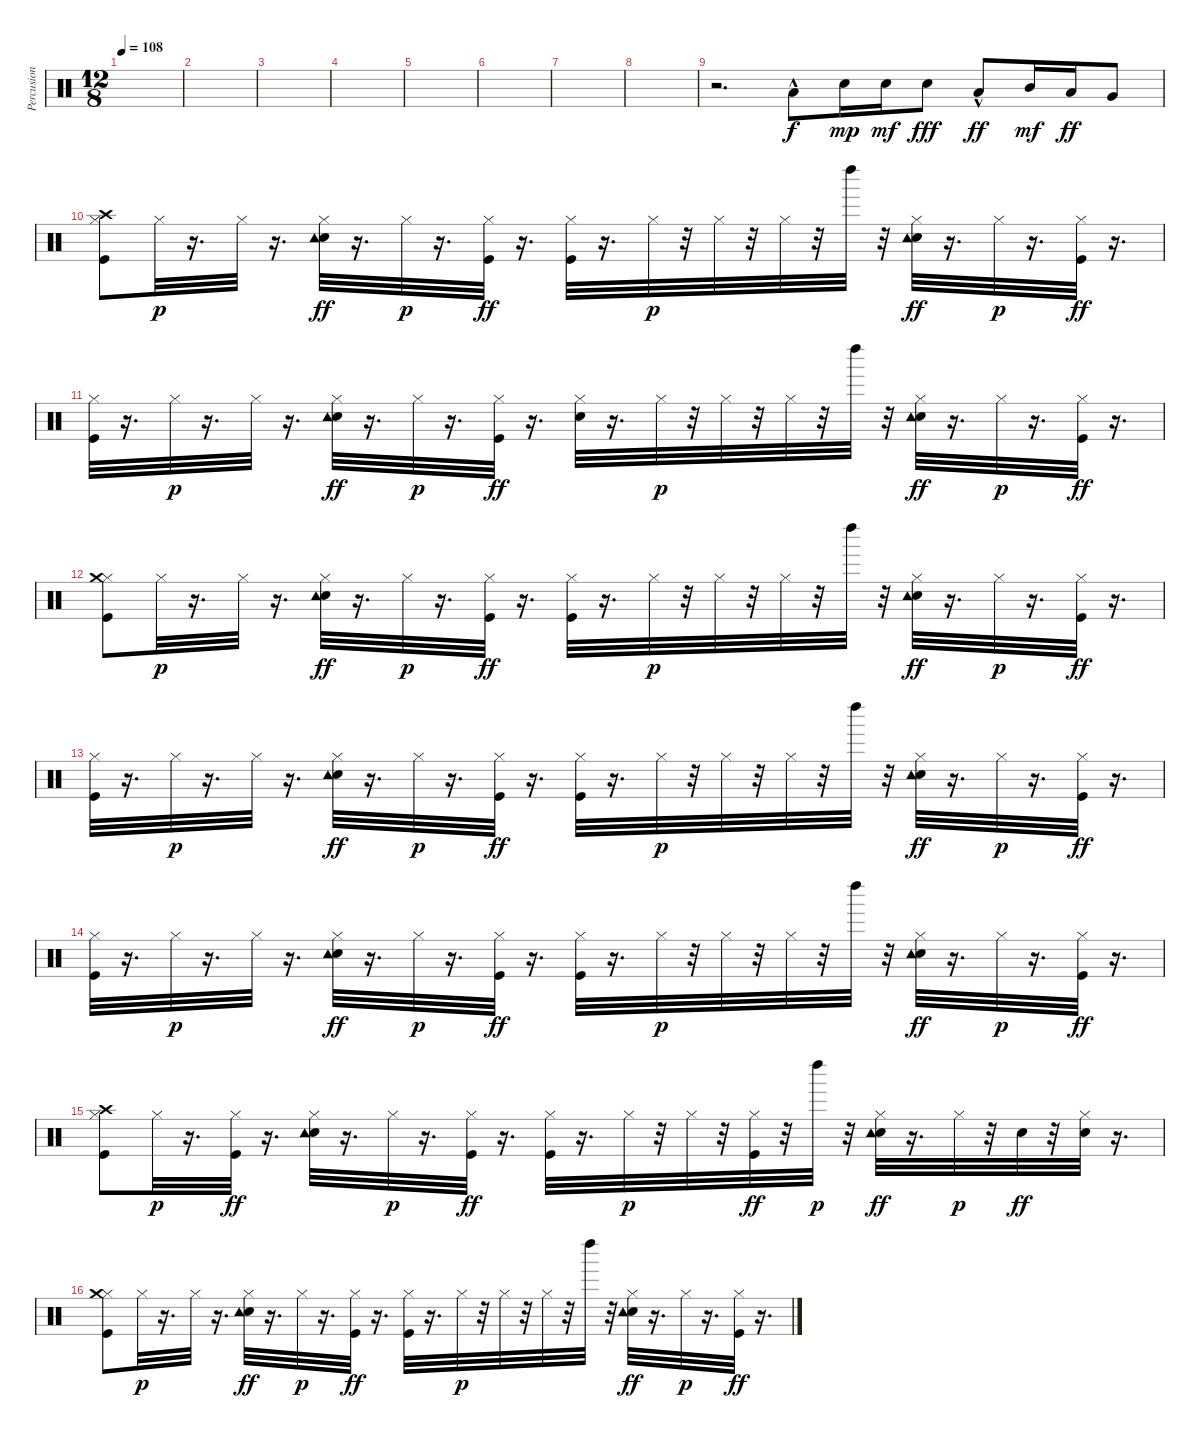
\track ("Percusion (Matt)" "Percusion ") {instrument percussion}
\staff {score}
\articulation defaults
\ts (12 8)
\tempo 108
\clef neutral
\ks c
|
|
|
|
|
|
|
|
r.2{d} "Low Tom (hit)"{hac}.8 "Snare (hit) 2".16{dy mp} "Snare (hit) 2".16{dy mf} "Snare (hit) 2".8{dy fff} "Low Tom (hit)"{hac}.8{dy ff} "Mid Tom (hit)".16{dy mf} "Low Tom (hit)".16{dy ff} "Very Low Tom (hit)".8 |
("Hi-Hat (closed)" "Kick (hit)" "Crash high (hit)").8 "Hi-Hat (closed)".32{dy p} r.16{d} "Hi-Hat (closed)".32 r.16{d} ("Hi-Hat (closed)" "Electric Snare (hit)" "Tambourine (hit)").32{dy ff} r.16{d} "Hi-Hat (closed)".32{dy p} r.16{d} ("Hi-Hat (closed)" "Kick (hit)").32{dy ff} r.16{d} ("Hi-Hat (closed)" "Kick (hit)").32 r.16{d} "Hi-Hat (closed)".32{dy p} r.32 "Hi-Hat (closed)".32 r.32 "Hi-Hat (closed)".32 r.32 "Left Maraca (hit)".32 r.32 ("Hi-Hat (closed)" "Electric Snare (hit)" "Tambourine (hit)").32{dy ff} r.16{d} "Hi-Hat (closed)".32{dy p} r.16{d} ("Hi-Hat (closed)" "Kick (hit)").32{dy ff} r.16{d} |
("Hi-Hat (closed)" "Kick (hit)").32 r.16{d} "Hi-Hat (closed)".32{dy p} r.16{d} "Hi-Hat (closed)".32 r.16{d} ("Hi-Hat (closed)" "Electric Snare (hit)" "Tambourine (hit)").32{dy ff} r.16{d} "Hi-Hat (closed)".32{dy p} r.16{d} ("Hi-Hat (closed)" "Kick (hit)").32{dy ff} r.16{d} ("Hi-Hat (closed)" "Electric Snare (hit)").32 r.16{d} "Hi-Hat (closed)".32{dy p} r.32 "Hi-Hat (closed)".32 r.32 "Hi-Hat (closed)".32 r.32 "Left Maraca (hit)".32 r.32 ("Hi-Hat (closed)" "Electric Snare (hit)" "Tambourine (hit)").32{dy ff} r.16{d} "Hi-Hat (closed)".32{dy p} r.16{d} ("Hi-Hat (closed)" "Kick (hit)").32{dy ff} r.16{d} |
("Hi-Hat (closed)" "Kick (hit)" "Crash medium (hit)").8 "Hi-Hat (closed)".32{dy p} r.16{d} "Hi-Hat (closed)".32 r.16{d} ("Hi-Hat (closed)" "Electric Snare (hit)" "Tambourine (hit)").32{dy ff} r.16{d} "Hi-Hat (closed)".32{dy p} r.16{d} ("Hi-Hat (closed)" "Kick (hit)").32{dy ff} r.16{d} ("Hi-Hat (closed)" "Kick (hit)").32 r.16{d} "Hi-Hat (closed)".32{dy p} r.32 "Hi-Hat (closed)".32 r.32 "Hi-Hat (closed)".32 r.32 "Left Maraca (hit)".32 r.32 ("Hi-Hat (closed)" "Electric Snare (hit)" "Tambourine (hit)").32{dy ff} r.16{d} "Hi-Hat (closed)".32{dy p} r.16{d} ("Hi-Hat (closed)" "Kick (hit)").32{dy ff} r.16{d} |
("Hi-Hat (closed)" "Kick (hit)").32 r.16{d} "Hi-Hat (closed)".32{dy p} r.16{d} "Hi-Hat (closed)".32 r.16{d} ("Hi-Hat (closed)" "Electric Snare (hit)" "Tambourine (hit)").32{dy ff} r.16{d} "Hi-Hat (closed)".32{dy p} r.16{d} ("Hi-Hat (closed)" "Kick (hit)").32{dy ff} r.16{d} ("Hi-Hat (closed)" "Kick (hit)").32 r.16{d} "Hi-Hat (closed)".32{dy p} r.32 "Hi-Hat (closed)".32 r.32 "Hi-Hat (closed)".32 r.32 "Left Maraca (hit)".32 r.32 ("Hi-Hat (closed)" "Electric Snare (hit)" "Tambourine (hit)").32{dy ff} r.16{d} "Hi-Hat (closed)".32{dy p} r.16{d} ("Hi-Hat (closed)" "Kick (hit)").32{dy ff} r.16{d} |
("Hi-Hat (closed)" "Kick (hit)").32 r.16{d} "Hi-Hat (closed)".32{dy p} r.16{d} "Hi-Hat (closed)".32 r.16{d} ("Hi-Hat (closed)" "Electric Snare (hit)" "Tambourine (hit)").32{dy ff} r.16{d} "Hi-Hat (closed)".32{dy p} r.16{d} ("Hi-Hat (closed)" "Kick (hit)").32{dy ff} r.16{d} ("Hi-Hat (closed)" "Kick (hit)").32 r.16{d} "Hi-Hat (closed)".32{dy p} r.32 "Hi-Hat (closed)".32 r.32 "Hi-Hat (closed)".32 r.32 "Left Maraca (hit)".32 r.32 ("Hi-Hat (closed)" "Electric Snare (hit)" "Tambourine (hit)").32{dy ff} r.16{d} "Hi-Hat (closed)".32{dy p} r.16{d} ("Hi-Hat (closed)" "Kick (hit)").32{dy ff} r.16{d} |
("Hi-Hat (closed)" "Kick (hit)" "Crash high (hit)").8 "Hi-Hat (closed)".32{dy p} r.16{d} ("Hi-Hat (closed)" "Kick (hit)").32{dy ff} r.16{d} ("Hi-Hat (closed)" "Electric Snare (hit)" "Tambourine (hit)").32 r.16{d} "Hi-Hat (closed)".32{dy p} r.16{d} ("Hi-Hat (closed)" "Kick (hit)").32{dy ff} r.16{d} ("Hi-Hat (closed)" "Kick (hit)").32 r.16{d} "Hi-Hat (closed)".32{dy p} r.32 "Hi-Hat (closed)".32 r.32 ("Hi-Hat (closed)" "Kick (hit)").32{dy ff} r.32 "Left Maraca (hit)".32{dy p} r.32 ("Hi-Hat (closed)" "Electric Snare (hit)" "Tambourine (hit)").32{dy ff} r.16{d} "Hi-Hat (closed)".32{dy p} r.32 "Snare (hit) 2".32{dy ff} r.32 ("Hi-Hat (closed)" "Electric Snare (hit)").32 r.16{d} |
("Hi-Hat (closed)" "Kick (hit)" "Crash medium (hit)").8 "Hi-Hat (closed)".32{dy p} r.16{d} "Hi-Hat (closed)".32 r.16{d} ("Hi-Hat (closed)" "Electric Snare (hit)" "Tambourine (hit)").32{dy ff} r.16{d} "Hi-Hat (closed)".32{dy p} r.16{d} ("Hi-Hat (closed)" "Kick (hit)").32{dy ff} r.16{d} ("Hi-Hat (closed)" "Kick (hit)").32 r.16{d} "Hi-Hat (closed)".32{dy p} r.32 "Hi-Hat (closed)".32 r.32 "Hi-Hat (closed)".32 r.32 "Left Maraca (hit)".32 r.32 ("Hi-Hat (closed)" "Electric Snare (hit)" "Tambourine (hit)").32{dy ff} r.16{d} "Hi-Hat (closed)".32{dy p} r.16{d} ("Hi-Hat (closed)" "Kick (hit)").32{dy ff} r.16{d}
